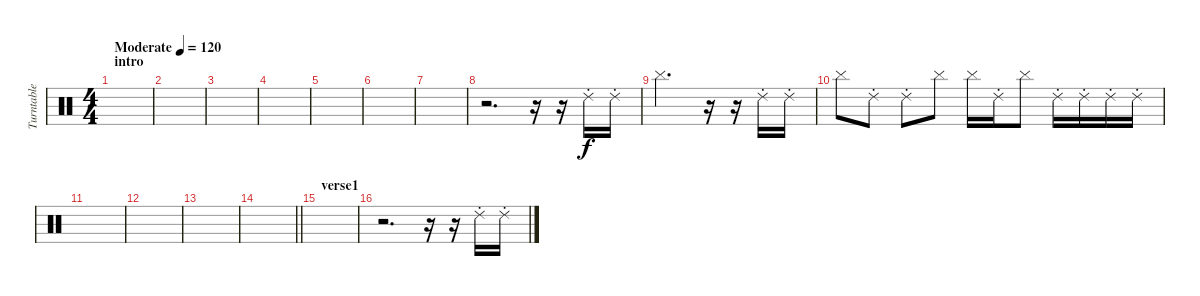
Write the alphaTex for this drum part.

\track ("Turntable" "Turntable") {instrument percussion}
\staff {score}
\articulation defaults
\ts (4 4)
\section ("" "intro")
\tempo (120 "Moderate")
\clef neutral
\ks c
|
|
|
|
|
|
|
r.2{d} r.16 r.16 "Ride (choke) 2".16 "Ride (choke) 2".16 |
"Cymbal (hit)".2{d} r.16 r.16 "Ride (choke) 2".16 "Ride (choke) 2".16 |
"Cymbal (hit)".8 "Ride (choke) 2".8 "Ride (choke) 2".8 "Cymbal (hit)".8 "Cymbal (hit)".16 "Ride (choke) 2".16 "Cymbal (hit)".8 "Ride (choke) 2".16 "Ride (choke) 2".16 "Ride (choke) 2".16 "Ride (choke) 2".16 |
|
|
|
\barLineRight lightlight
|
\section ("" "verse1")
|
r.2{d} r.16 r.16 "Ride (choke) 2".16 "Ride (choke) 2".16
